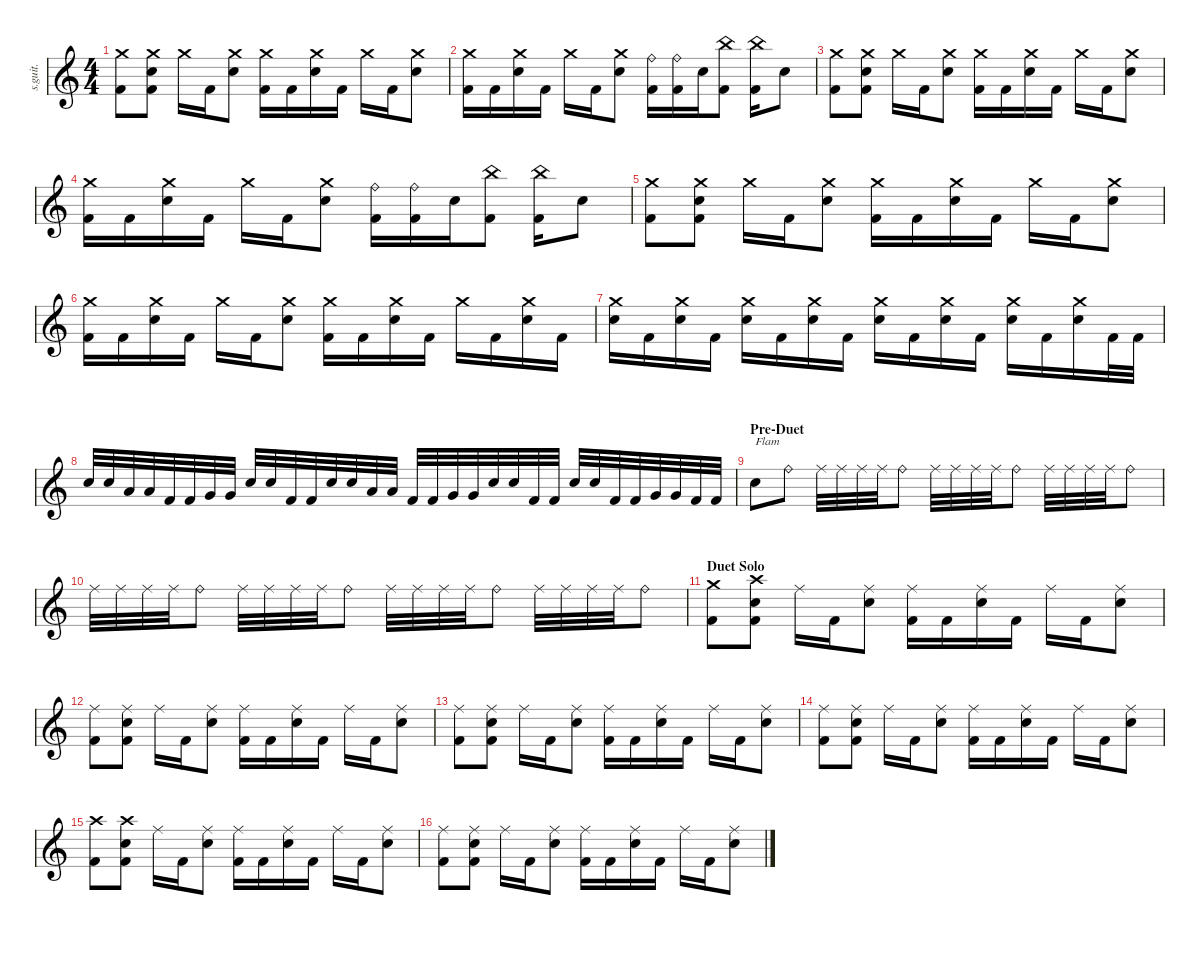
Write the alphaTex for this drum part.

\defaultSystemsLayout 4
\hideDynamics
\bracketExtendMode nobrackets
\track ("The Rev" "s.guit.") {instrument percussion}
\staff {score}
\articulation defaults
\ts (4 4)
\tempo (125 hide)
\clef g2
\ks c
("Crash medium (hit)" "Kick (hit) 2").8{lyrics (0 "") lyrics (1 "") lyrics (2 "") lyrics (3 "") lyrics (4 "") dy mp} ("Crash medium (hit)" "Electric Snare (hit)" "Kick (hit) 2").8{lyrics (0 "") lyrics (1 "") lyrics (2 "") lyrics (3 "") lyrics (4 "")} "Crash medium (hit)".16{lyrics (0 "") lyrics (1 "") lyrics (2 "") lyrics (3 "") lyrics (4 "")} "Kick (hit) 2".16{lyrics (0 "") lyrics (1 "") lyrics (2 "") lyrics (3 "") lyrics (4 "") dy fff} ("Crash medium (hit)" "Electric Snare (hit)").8{lyrics (0 "") lyrics (1 "") lyrics (2 "") lyrics (3 "") lyrics (4 "") dy f} ("Crash medium (hit)" "Kick (hit) 2").16{lyrics (0 "") lyrics (1 "") lyrics (2 "") lyrics (3 "") lyrics (4 "") dy mp} "Kick (hit) 2".16{lyrics (0 "") lyrics (1 "") lyrics (2 "") lyrics (3 "") lyrics (4 "") dy fff} ("Crash medium (hit)" "Electric Snare (hit)").16{lyrics (0 "") lyrics (1 "") lyrics (2 "") lyrics (3 "") lyrics (4 "") dy f} "Kick (hit) 2".16{lyrics (0 "") lyrics (1 "") lyrics (2 "") lyrics (3 "") lyrics (4 "") dy fff} "Crash medium (hit)".16{lyrics (0 "") lyrics (1 "") lyrics (2 "") lyrics (3 "") lyrics (4 "") dy mp} "Kick (hit) 2".16{lyrics (0 "") lyrics (1 "") lyrics (2 "") lyrics (3 "") lyrics (4 "") dy fff} ("Crash medium (hit)" "Electric Snare (hit)").8{lyrics (0 "") lyrics (1 "") lyrics (2 "") lyrics (3 "") lyrics (4 "") dy f} |
("Crash medium (hit)" "Kick (hit) 2").16{lyrics (0 "") lyrics (1 "") lyrics (2 "") lyrics (3 "") lyrics (4 "") dy mp} "Kick (hit) 2".16{lyrics (0 "") lyrics (1 "") lyrics (2 "") lyrics (3 "") lyrics (4 "") dy fff} ("Crash medium (hit)" "Electric Snare (hit)").16{lyrics (0 "") lyrics (1 "") lyrics (2 "") lyrics (3 "") lyrics (4 "") dy f} "Kick (hit) 2".16{lyrics (0 "") lyrics (1 "") lyrics (2 "") lyrics (3 "") lyrics (4 "") dy fff} "Crash medium (hit)".16{lyrics (0 "") lyrics (1 "") lyrics (2 "") lyrics (3 "") lyrics (4 "") dy mp} "Kick (hit) 2".16{lyrics (0 "") lyrics (1 "") lyrics (2 "") lyrics (3 "") lyrics (4 "") dy fff} ("Crash medium (hit)" "Electric Snare (hit)").8{lyrics (0 "") lyrics (1 "") lyrics (2 "") lyrics (3 "") lyrics (4 "") dy f} ("Ride (bell)" "Kick (hit) 2").16{lyrics (0 "") lyrics (1 "") lyrics (2 "") lyrics (3 "") lyrics (4 "")} ("Ride (bell)" "Kick (hit) 2").16{lyrics (0 "") lyrics (1 "") lyrics (2 "") lyrics (3 "") lyrics (4 "")} "Electric Snare (hit)".16{lyrics (0 "") lyrics (1 "") lyrics (2 "") lyrics (3 "") lyrics (4 "")} ("China (hit)" "Kick (hit) 2").8{lyrics (0 "") lyrics (1 "") lyrics (2 "") lyrics (3 "") lyrics (4 "") dy fff} ("China (hit)" "Kick (hit) 2").16{lyrics (0 "") lyrics (1 "") lyrics (2 "") lyrics (3 "") lyrics (4 "")} "Electric Snare (hit)".8{lyrics (0 "") lyrics (1 "") lyrics (2 "") lyrics (3 "") lyrics (4 "") dy f} |
("Crash medium (hit)" "Kick (hit) 2").8{lyrics (0 "") lyrics (1 "") lyrics (2 "") lyrics (3 "") lyrics (4 "") dy mp} ("Crash medium (hit)" "Electric Snare (hit)" "Kick (hit) 2").8{lyrics (0 "") lyrics (1 "") lyrics (2 "") lyrics (3 "") lyrics (4 "")} "Crash medium (hit)".16{lyrics (0 "") lyrics (1 "") lyrics (2 "") lyrics (3 "") lyrics (4 "")} "Kick (hit) 2".16{lyrics (0 "") lyrics (1 "") lyrics (2 "") lyrics (3 "") lyrics (4 "") dy fff} ("Crash medium (hit)" "Electric Snare (hit)").8{lyrics (0 "") lyrics (1 "") lyrics (2 "") lyrics (3 "") lyrics (4 "") dy f} ("Crash medium (hit)" "Kick (hit) 2").16{lyrics (0 "") lyrics (1 "") lyrics (2 "") lyrics (3 "") lyrics (4 "") dy mp} "Kick (hit) 2".16{lyrics (0 "") lyrics (1 "") lyrics (2 "") lyrics (3 "") lyrics (4 "") dy fff} ("Crash medium (hit)" "Electric Snare (hit)").16{lyrics (0 "") lyrics (1 "") lyrics (2 "") lyrics (3 "") lyrics (4 "") dy f} "Kick (hit) 2".16{lyrics (0 "") lyrics (1 "") lyrics (2 "") lyrics (3 "") lyrics (4 "") dy fff} "Crash medium (hit)".16{lyrics (0 "") lyrics (1 "") lyrics (2 "") lyrics (3 "") lyrics (4 "") dy mp} "Kick (hit) 2".16{lyrics (0 "") lyrics (1 "") lyrics (2 "") lyrics (3 "") lyrics (4 "") dy fff} ("Crash medium (hit)" "Electric Snare (hit)").8{lyrics (0 "") lyrics (1 "") lyrics (2 "") lyrics (3 "") lyrics (4 "") dy f} |
("Crash medium (hit)" "Kick (hit) 2").16{lyrics (0 "") lyrics (1 "") lyrics (2 "") lyrics (3 "") lyrics (4 "") dy mp} "Kick (hit) 2".16{lyrics (0 "") lyrics (1 "") lyrics (2 "") lyrics (3 "") lyrics (4 "") dy fff} ("Crash medium (hit)" "Electric Snare (hit)").16{lyrics (0 "") lyrics (1 "") lyrics (2 "") lyrics (3 "") lyrics (4 "") dy f} "Kick (hit) 2".16{lyrics (0 "") lyrics (1 "") lyrics (2 "") lyrics (3 "") lyrics (4 "") dy fff} "Crash medium (hit)".16{lyrics (0 "") lyrics (1 "") lyrics (2 "") lyrics (3 "") lyrics (4 "") dy mp} "Kick (hit) 2".16{lyrics (0 "") lyrics (1 "") lyrics (2 "") lyrics (3 "") lyrics (4 "") dy fff} ("Crash medium (hit)" "Electric Snare (hit)").8{lyrics (0 "") lyrics (1 "") lyrics (2 "") lyrics (3 "") lyrics (4 "") dy f} ("Ride (bell)" "Kick (hit) 2").16{lyrics (0 "") lyrics (1 "") lyrics (2 "") lyrics (3 "") lyrics (4 "")} ("Ride (bell)" "Kick (hit) 2").16{lyrics (0 "") lyrics (1 "") lyrics (2 "") lyrics (3 "") lyrics (4 "")} "Electric Snare (hit)".16{lyrics (0 "") lyrics (1 "") lyrics (2 "") lyrics (3 "") lyrics (4 "")} ("China (hit)" "Kick (hit) 2").8{lyrics (0 "") lyrics (1 "") lyrics (2 "") lyrics (3 "") lyrics (4 "") dy fff} ("China (hit)" "Kick (hit) 2").16{lyrics (0 "") lyrics (1 "") lyrics (2 "") lyrics (3 "") lyrics (4 "")} "Electric Snare (hit)".8{lyrics (0 "") lyrics (1 "") lyrics (2 "") lyrics (3 "") lyrics (4 "") dy f} |
("Crash medium (hit)" "Kick (hit) 2").8{lyrics (0 "") lyrics (1 "") lyrics (2 "") lyrics (3 "") lyrics (4 "") dy mp} ("Crash medium (hit)" "Electric Snare (hit)" "Kick (hit) 2").8{lyrics (0 "") lyrics (1 "") lyrics (2 "") lyrics (3 "") lyrics (4 "")} "Crash medium (hit)".16{lyrics (0 "") lyrics (1 "") lyrics (2 "") lyrics (3 "") lyrics (4 "")} "Kick (hit) 2".16{lyrics (0 "") lyrics (1 "") lyrics (2 "") lyrics (3 "") lyrics (4 "") dy fff} ("Crash medium (hit)" "Electric Snare (hit)").8{lyrics (0 "") lyrics (1 "") lyrics (2 "") lyrics (3 "") lyrics (4 "") dy f} ("Crash medium (hit)" "Kick (hit) 2").16{lyrics (0 "") lyrics (1 "") lyrics (2 "") lyrics (3 "") lyrics (4 "") dy mp} "Kick (hit) 2".16{lyrics (0 "") lyrics (1 "") lyrics (2 "") lyrics (3 "") lyrics (4 "") dy fff} ("Crash medium (hit)" "Electric Snare (hit)").16{lyrics (0 "") lyrics (1 "") lyrics (2 "") lyrics (3 "") lyrics (4 "") dy f} "Kick (hit) 2".16{lyrics (0 "") lyrics (1 "") lyrics (2 "") lyrics (3 "") lyrics (4 "") dy fff} "Crash medium (hit)".16{lyrics (0 "") lyrics (1 "") lyrics (2 "") lyrics (3 "") lyrics (4 "") dy mp} "Kick (hit) 2".16{lyrics (0 "") lyrics (1 "") lyrics (2 "") lyrics (3 "") lyrics (4 "") dy fff} ("Crash medium (hit)" "Electric Snare (hit)").8{lyrics (0 "") lyrics (1 "") lyrics (2 "") lyrics (3 "") lyrics (4 "") dy f} |
("Crash medium (hit)" "Kick (hit) 2").16{lyrics (0 "") lyrics (1 "") lyrics (2 "") lyrics (3 "") lyrics (4 "") dy mp} "Kick (hit) 2".16{lyrics (0 "") lyrics (1 "") lyrics (2 "") lyrics (3 "") lyrics (4 "") dy fff} ("Crash medium (hit)" "Electric Snare (hit)").16{lyrics (0 "") lyrics (1 "") lyrics (2 "") lyrics (3 "") lyrics (4 "") dy f} "Kick (hit) 2".16{lyrics (0 "") lyrics (1 "") lyrics (2 "") lyrics (3 "") lyrics (4 "") dy fff} "Crash medium (hit)".16{lyrics (0 "") lyrics (1 "") lyrics (2 "") lyrics (3 "") lyrics (4 "") dy mp} "Kick (hit) 2".16{lyrics (0 "") lyrics (1 "") lyrics (2 "") lyrics (3 "") lyrics (4 "") dy fff} ("Crash medium (hit)" "Electric Snare (hit)").8{lyrics (0 "") lyrics (1 "") lyrics (2 "") lyrics (3 "") lyrics (4 "") dy f} ("Crash medium (hit)" "Kick (hit) 2").16{lyrics (0 "") lyrics (1 "") lyrics (2 "") lyrics (3 "") lyrics (4 "") dy mp} "Kick (hit) 2".16{lyrics (0 "") lyrics (1 "") lyrics (2 "") lyrics (3 "") lyrics (4 "") dy fff} ("Crash medium (hit)" "Electric Snare (hit)").16{lyrics (0 "") lyrics (1 "") lyrics (2 "") lyrics (3 "") lyrics (4 "") dy f} "Kick (hit) 2".16{lyrics (0 "") lyrics (1 "") lyrics (2 "") lyrics (3 "") lyrics (4 "") dy fff} "Crash medium (hit)".16{lyrics (0 "") lyrics (1 "") lyrics (2 "") lyrics (3 "") lyrics (4 "") dy mp} "Kick (hit) 2".16{lyrics (0 "") lyrics (1 "") lyrics (2 "") lyrics (3 "") lyrics (4 "") dy fff} ("Crash medium (hit)" "Electric Snare (hit)").16{lyrics (0 "") lyrics (1 "") lyrics (2 "") lyrics (3 "") lyrics (4 "") dy f} "Kick (hit) 2".16{lyrics (0 "") lyrics (1 "") lyrics (2 "") lyrics (3 "") lyrics (4 "") dy fff} |
("Crash medium (hit)" "Electric Snare (hit)").16{lyrics (0 "") lyrics (1 "") lyrics (2 "") lyrics (3 "") lyrics (4 "") dy f} "Kick (hit) 2".16{lyrics (0 "") lyrics (1 "") lyrics (2 "") lyrics (3 "") lyrics (4 "") dy fff} ("Crash medium (hit)" "Electric Snare (hit)").16{lyrics (0 "") lyrics (1 "") lyrics (2 "") lyrics (3 "") lyrics (4 "") dy f} "Kick (hit) 2".16{lyrics (0 "") lyrics (1 "") lyrics (2 "") lyrics (3 "") lyrics (4 "") dy fff} ("Crash medium (hit)" "Electric Snare (hit)").16{lyrics (0 "") lyrics (1 "") lyrics (2 "") lyrics (3 "") lyrics (4 "") dy f} "Kick (hit) 2".16{lyrics (0 "") lyrics (1 "") lyrics (2 "") lyrics (3 "") lyrics (4 "") dy fff} ("Crash medium (hit)" "Electric Snare (hit)").16{lyrics (0 "") lyrics (1 "") lyrics (2 "") lyrics (3 "") lyrics (4 "") dy f} "Kick (hit) 2".16{lyrics (0 "") lyrics (1 "") lyrics (2 "") lyrics (3 "") lyrics (4 "") dy fff} ("Crash medium (hit)" "Electric Snare (hit)").16{lyrics (0 "") lyrics (1 "") lyrics (2 "") lyrics (3 "") lyrics (4 "") dy f} "Kick (hit) 2".16{lyrics (0 "") lyrics (1 "") lyrics (2 "") lyrics (3 "") lyrics (4 "") dy fff} ("Crash medium (hit)" "Electric Snare (hit)").16{lyrics (0 "") lyrics (1 "") lyrics (2 "") lyrics (3 "") lyrics (4 "") dy f} "Kick (hit) 2".16{lyrics (0 "") lyrics (1 "") lyrics (2 "") lyrics (3 "") lyrics (4 "") dy fff} ("Crash medium (hit)" "Electric Snare (hit)").16{lyrics (0 "") lyrics (1 "") lyrics (2 "") lyrics (3 "") lyrics (4 "") dy f} "Kick (hit) 2".16{lyrics (0 "") lyrics (1 "") lyrics (2 "") lyrics (3 "") lyrics (4 "") dy fff} ("Crash medium (hit)" "Electric Snare (hit)").16{lyrics (0 "") lyrics (1 "") lyrics (2 "") lyrics (3 "") lyrics (4 "") dy f} "Kick (hit) 2".32{lyrics (0 "") lyrics (1 "") lyrics (2 "") lyrics (3 "") lyrics (4 "") dy fff} "Kick (hit) 2".32{lyrics (0 "") lyrics (1 "") lyrics (2 "") lyrics (3 "") lyrics (4 "")} |
"Electric Snare (hit)".32{lyrics (0 "") lyrics (1 "") lyrics (2 "") lyrics (3 "") lyrics (4 "") dy ff} "Electric Snare (hit)".32{lyrics (0 "") lyrics (1 "") lyrics (2 "") lyrics (3 "") lyrics (4 "")} "Low Tom (hit)".32{lyrics (0 "") lyrics (1 "") lyrics (2 "") lyrics (3 "") lyrics (4 "") dy fff} "Low Tom (hit)".32{lyrics (0 "") lyrics (1 "") lyrics (2 "") lyrics (3 "") lyrics (4 "")} "Kick (hit) 2".32{lyrics (0 "") lyrics (1 "") lyrics (2 "") lyrics (3 "") lyrics (4 "")} "Kick (hit) 2".32{lyrics (0 "") lyrics (1 "") lyrics (2 "") lyrics (3 "") lyrics (4 "")} "Very Low Tom (hit)".32{lyrics (0 "") lyrics (1 "") lyrics (2 "") lyrics (3 "") lyrics (4 "") dy ff} "Very Low Tom (hit)".32{lyrics (0 "") lyrics (1 "") lyrics (2 "") lyrics (3 "") lyrics (4 "")} "Electric Snare (hit)".32{lyrics (0 "") lyrics (1 "") lyrics (2 "") lyrics (3 "") lyrics (4 "")} "Electric Snare (hit)".32{lyrics (0 "") lyrics (1 "") lyrics (2 "") lyrics (3 "") lyrics (4 "")} "Kick (hit) 2".32{lyrics (0 "") lyrics (1 "") lyrics (2 "") lyrics (3 "") lyrics (4 "") dy fff} "Kick (hit) 2".32{lyrics (0 "") lyrics (1 "") lyrics (2 "") lyrics (3 "") lyrics (4 "")} "Electric Snare (hit)".32{lyrics (0 "") lyrics (1 "") lyrics (2 "") lyrics (3 "") lyrics (4 "") dy ff} "Electric Snare (hit)".32{lyrics (0 "") lyrics (1 "") lyrics (2 "") lyrics (3 "") lyrics (4 "")} "Low Tom (hit)".32{lyrics (0 "") lyrics (1 "") lyrics (2 "") lyrics (3 "") lyrics (4 "") dy fff} "Low Tom (hit)".32{lyrics (0 "") lyrics (1 "") lyrics (2 "") lyrics (3 "") lyrics (4 "")} "Kick (hit) 2".32{lyrics (0 "") lyrics (1 "") lyrics (2 "") lyrics (3 "") lyrics (4 "")} "Kick (hit) 2".32{lyrics (0 "") lyrics (1 "") lyrics (2 "") lyrics (3 "") lyrics (4 "")} "Very Low Tom (hit)".32{lyrics (0 "") lyrics (1 "") lyrics (2 "") lyrics (3 "") lyrics (4 "") dy ff} "Very Low Tom (hit)".32{lyrics (0 "") lyrics (1 "") lyrics (2 "") lyrics (3 "") lyrics (4 "")} "Electric Snare (hit)".32{lyrics (0 "") lyrics (1 "") lyrics (2 "") lyrics (3 "") lyrics (4 "")} "Electric Snare (hit)".32{lyrics (0 "") lyrics (1 "") lyrics (2 "") lyrics (3 "") lyrics (4 "")} "Kick (hit) 2".32{lyrics (0 "") lyrics (1 "") lyrics (2 "") lyrics (3 "") lyrics (4 "") dy fff} "Kick (hit) 2".32{lyrics (0 "") lyrics (1 "") lyrics (2 "") lyrics (3 "") lyrics (4 "")} "Electric Snare (hit)".32{lyrics (0 "") lyrics (1 "") lyrics (2 "") lyrics (3 "") lyrics (4 "") dy ff} "Electric Snare (hit)".32{lyrics (0 "") lyrics (1 "") lyrics (2 "") lyrics (3 "") lyrics (4 "")} "Kick (hit) 2".32{lyrics (0 "") lyrics (1 "") lyrics (2 "") lyrics (3 "") lyrics (4 "") dy fff} "Kick (hit) 2".32{lyrics (0 "") lyrics (1 "") lyrics (2 "") lyrics (3 "") lyrics (4 "")} "Very Low Tom (hit)".32{lyrics (0 "") lyrics (1 "") lyrics (2 "") lyrics (3 "") lyrics (4 "") dy ff} "Very Low Tom (hit)".32{lyrics (0 "") lyrics (1 "") lyrics (2 "") lyrics (3 "") lyrics (4 "")} "Kick (hit) 2".32{lyrics (0 "") lyrics (1 "") lyrics (2 "") lyrics (3 "") lyrics (4 "") dy fff} "Kick (hit) 2".32{lyrics (0 "") lyrics (1 "") lyrics (2 "") lyrics (3 "") lyrics (4 "")} |
\section ("" "Pre-Duet")
"Electric Snare (hit)".8{txt "Flam" lyrics (0 "") lyrics (1 "") lyrics (2 "") lyrics (3 "") lyrics (4 "")} "Ride (bell)".8{lyrics (0 "") lyrics (1 "") lyrics (2 "") lyrics (3 "") lyrics (4 "") dy f} "Ride (middle)".32{lyrics (0 "") lyrics (1 "") lyrics (2 "") lyrics (3 "") lyrics (4 "") dy mp} "Ride (middle)".32{lyrics (0 "") lyrics (1 "") lyrics (2 "") lyrics (3 "") lyrics (4 "")} "Ride (middle)".32{lyrics (0 "") lyrics (1 "") lyrics (2 "") lyrics (3 "") lyrics (4 "")} "Ride (middle)".32{lyrics (0 "") lyrics (1 "") lyrics (2 "") lyrics (3 "") lyrics (4 "")} "Ride (bell)".8{lyrics (0 "") lyrics (1 "") lyrics (2 "") lyrics (3 "") lyrics (4 "") dy fff} "Ride (middle)".32{lyrics (0 "") lyrics (1 "") lyrics (2 "") lyrics (3 "") lyrics (4 "") dy mp} "Ride (middle)".32{lyrics (0 "") lyrics (1 "") lyrics (2 "") lyrics (3 "") lyrics (4 "")} "Ride (middle)".32{lyrics (0 "") lyrics (1 "") lyrics (2 "") lyrics (3 "") lyrics (4 "")} "Ride (middle)".32{lyrics (0 "") lyrics (1 "") lyrics (2 "") lyrics (3 "") lyrics (4 "")} "Ride (bell)".8{lyrics (0 "") lyrics (1 "") lyrics (2 "") lyrics (3 "") lyrics (4 "") dy fff} "Ride (middle)".32{lyrics (0 "") lyrics (1 "") lyrics (2 "") lyrics (3 "") lyrics (4 "") dy mp} "Ride (middle)".32{lyrics (0 "") lyrics (1 "") lyrics (2 "") lyrics (3 "") lyrics (4 "")} "Ride (middle)".32{lyrics (0 "") lyrics (1 "") lyrics (2 "") lyrics (3 "") lyrics (4 "")} "Ride (middle)".32{lyrics (0 "") lyrics (1 "") lyrics (2 "") lyrics (3 "") lyrics (4 "")} "Ride (bell)".8{lyrics (0 "") lyrics (1 "") lyrics (2 "") lyrics (3 "") lyrics (4 "") dy fff} |
"Ride (middle)".32{lyrics (0 "") lyrics (1 "") lyrics (2 "") lyrics (3 "") lyrics (4 "") dy mp} "Ride (middle)".32{lyrics (0 "") lyrics (1 "") lyrics (2 "") lyrics (3 "") lyrics (4 "")} "Ride (middle)".32{lyrics (0 "") lyrics (1 "") lyrics (2 "") lyrics (3 "") lyrics (4 "")} "Ride (middle)".32{lyrics (0 "") lyrics (1 "") lyrics (2 "") lyrics (3 "") lyrics (4 "")} "Ride (bell)".8{lyrics (0 "") lyrics (1 "") lyrics (2 "") lyrics (3 "") lyrics (4 "") dy fff} "Ride (middle)".32{lyrics (0 "") lyrics (1 "") lyrics (2 "") lyrics (3 "") lyrics (4 "") dy mp} "Ride (middle)".32{lyrics (0 "") lyrics (1 "") lyrics (2 "") lyrics (3 "") lyrics (4 "")} "Ride (middle)".32{lyrics (0 "") lyrics (1 "") lyrics (2 "") lyrics (3 "") lyrics (4 "")} "Ride (middle)".32{lyrics (0 "") lyrics (1 "") lyrics (2 "") lyrics (3 "") lyrics (4 "")} "Ride (bell)".8{lyrics (0 "") lyrics (1 "") lyrics (2 "") lyrics (3 "") lyrics (4 "") dy fff} "Ride (middle)".32{lyrics (0 "") lyrics (1 "") lyrics (2 "") lyrics (3 "") lyrics (4 "") dy mp} "Ride (middle)".32{lyrics (0 "") lyrics (1 "") lyrics (2 "") lyrics (3 "") lyrics (4 "")} "Ride (middle)".32{lyrics (0 "") lyrics (1 "") lyrics (2 "") lyrics (3 "") lyrics (4 "")} "Ride (middle)".32{lyrics (0 "") lyrics (1 "") lyrics (2 "") lyrics (3 "") lyrics (4 "")} "Ride (bell)".8{lyrics (0 "") lyrics (1 "") lyrics (2 "") lyrics (3 "") lyrics (4 "") dy fff} "Ride (middle)".32{lyrics (0 "") lyrics (1 "") lyrics (2 "") lyrics (3 "") lyrics (4 "") dy mp} "Ride (middle)".32{lyrics (0 "") lyrics (1 "") lyrics (2 "") lyrics (3 "") lyrics (4 "")} "Ride (middle)".32{lyrics (0 "") lyrics (1 "") lyrics (2 "") lyrics (3 "") lyrics (4 "")} "Ride (middle)".32{lyrics (0 "") lyrics (1 "") lyrics (2 "") lyrics (3 "") lyrics (4 "")} "Ride (bell)".8{lyrics (0 "") lyrics (1 "") lyrics (2 "") lyrics (3 "") lyrics (4 "") dy fff} |
\section ("" "Duet Solo")
("Crash medium (hit)" "Kick (hit) 2").8{lyrics (0 "") lyrics (1 "") lyrics (2 "") lyrics (3 "") lyrics (4 "")} ("Crash high (hit)" "Electric Snare (hit)" "Kick (hit) 2").8{lyrics (0 "") lyrics (1 "") lyrics (2 "") lyrics (3 "") lyrics (4 "") dy f} "Ride (middle)".16{lyrics (0 "") lyrics (1 "") lyrics (2 "") lyrics (3 "") lyrics (4 "") dy mp} "Kick (hit) 2".16{lyrics (0 "") lyrics (1 "") lyrics (2 "") lyrics (3 "") lyrics (4 "") dy fff} ("Ride (middle)" "Electric Snare (hit)").8{lyrics (0 "") lyrics (1 "") lyrics (2 "") lyrics (3 "") lyrics (4 "") dy f} ("Ride (middle)" "Kick (hit) 2").16{lyrics (0 "") lyrics (1 "") lyrics (2 "") lyrics (3 "") lyrics (4 "") dy mp} "Kick (hit) 2".16{lyrics (0 "") lyrics (1 "") lyrics (2 "") lyrics (3 "") lyrics (4 "") dy fff} ("Ride (middle)" "Electric Snare (hit)").16{lyrics (0 "") lyrics (1 "") lyrics (2 "") lyrics (3 "") lyrics (4 "") dy f} "Kick (hit) 2".16{lyrics (0 "") lyrics (1 "") lyrics (2 "") lyrics (3 "") lyrics (4 "") dy fff} "Ride (middle)".16{lyrics (0 "") lyrics (1 "") lyrics (2 "") lyrics (3 "") lyrics (4 "") dy mp} "Kick (hit) 2".16{lyrics (0 "") lyrics (1 "") lyrics (2 "") lyrics (3 "") lyrics (4 "") dy fff} ("Ride (middle)" "Electric Snare (hit)").8{lyrics (0 "") lyrics (1 "") lyrics (2 "") lyrics (3 "") lyrics (4 "") dy f} |
("Ride (middle)" "Kick (hit) 2").8{lyrics (0 "") lyrics (1 "") lyrics (2 "") lyrics (3 "") lyrics (4 "") dy mp} ("Ride (middle)" "Electric Snare (hit)" "Kick (hit) 2").8{lyrics (0 "") lyrics (1 "") lyrics (2 "") lyrics (3 "") lyrics (4 "") dy f} "Ride (middle)".16{lyrics (0 "") lyrics (1 "") lyrics (2 "") lyrics (3 "") lyrics (4 "") dy mp} "Kick (hit) 2".16{lyrics (0 "") lyrics (1 "") lyrics (2 "") lyrics (3 "") lyrics (4 "") dy fff} ("Ride (middle)" "Electric Snare (hit)").8{lyrics (0 "") lyrics (1 "") lyrics (2 "") lyrics (3 "") lyrics (4 "") dy f} ("Ride (middle)" "Kick (hit) 2").16{lyrics (0 "") lyrics (1 "") lyrics (2 "") lyrics (3 "") lyrics (4 "") dy mp} "Kick (hit) 2".16{lyrics (0 "") lyrics (1 "") lyrics (2 "") lyrics (3 "") lyrics (4 "") dy fff} ("Ride (middle)" "Electric Snare (hit)").16{lyrics (0 "") lyrics (1 "") lyrics (2 "") lyrics (3 "") lyrics (4 "") dy f} "Kick (hit) 2".16{lyrics (0 "") lyrics (1 "") lyrics (2 "") lyrics (3 "") lyrics (4 "") dy fff} "Ride (middle)".16{lyrics (0 "") lyrics (1 "") lyrics (2 "") lyrics (3 "") lyrics (4 "") dy mp} "Kick (hit) 2".16{lyrics (0 "") lyrics (1 "") lyrics (2 "") lyrics (3 "") lyrics (4 "") dy fff} ("Ride (middle)" "Electric Snare (hit)").8{lyrics (0 "") lyrics (1 "") lyrics (2 "") lyrics (3 "") lyrics (4 "") dy f} |
("Ride (middle)" "Kick (hit) 2").8{lyrics (0 "") lyrics (1 "") lyrics (2 "") lyrics (3 "") lyrics (4 "") dy mp} ("Ride (middle)" "Electric Snare (hit)" "Kick (hit) 2").8{lyrics (0 "") lyrics (1 "") lyrics (2 "") lyrics (3 "") lyrics (4 "") dy f} "Ride (middle)".16{lyrics (0 "") lyrics (1 "") lyrics (2 "") lyrics (3 "") lyrics (4 "") dy mp} "Kick (hit) 2".16{lyrics (0 "") lyrics (1 "") lyrics (2 "") lyrics (3 "") lyrics (4 "") dy fff} ("Ride (middle)" "Electric Snare (hit)").8{lyrics (0 "") lyrics (1 "") lyrics (2 "") lyrics (3 "") lyrics (4 "") dy f} ("Ride (middle)" "Kick (hit) 2").16{lyrics (0 "") lyrics (1 "") lyrics (2 "") lyrics (3 "") lyrics (4 "") dy mp} "Kick (hit) 2".16{lyrics (0 "") lyrics (1 "") lyrics (2 "") lyrics (3 "") lyrics (4 "") dy fff} ("Ride (middle)" "Electric Snare (hit)").16{lyrics (0 "") lyrics (1 "") lyrics (2 "") lyrics (3 "") lyrics (4 "") dy f} "Kick (hit) 2".16{lyrics (0 "") lyrics (1 "") lyrics (2 "") lyrics (3 "") lyrics (4 "") dy fff} "Ride (middle)".16{lyrics (0 "") lyrics (1 "") lyrics (2 "") lyrics (3 "") lyrics (4 "") dy mp} "Kick (hit) 2".16{lyrics (0 "") lyrics (1 "") lyrics (2 "") lyrics (3 "") lyrics (4 "") dy fff} ("Ride (middle)" "Electric Snare (hit)").8{lyrics (0 "") lyrics (1 "") lyrics (2 "") lyrics (3 "") lyrics (4 "") dy f} |
("Ride (middle)" "Kick (hit) 2").8{lyrics (0 "") lyrics (1 "") lyrics (2 "") lyrics (3 "") lyrics (4 "") dy mp} ("Ride (middle)" "Electric Snare (hit)" "Kick (hit) 2").8{lyrics (0 "") lyrics (1 "") lyrics (2 "") lyrics (3 "") lyrics (4 "") dy f} "Ride (middle)".16{lyrics (0 "") lyrics (1 "") lyrics (2 "") lyrics (3 "") lyrics (4 "") dy mp} "Kick (hit) 2".16{lyrics (0 "") lyrics (1 "") lyrics (2 "") lyrics (3 "") lyrics (4 "") dy fff} ("Ride (middle)" "Electric Snare (hit)").8{lyrics (0 "") lyrics (1 "") lyrics (2 "") lyrics (3 "") lyrics (4 "") dy f} ("Ride (middle)" "Kick (hit) 2").16{lyrics (0 "") lyrics (1 "") lyrics (2 "") lyrics (3 "") lyrics (4 "") dy mp} "Kick (hit) 2".16{lyrics (0 "") lyrics (1 "") lyrics (2 "") lyrics (3 "") lyrics (4 "") dy fff} ("Ride (middle)" "Electric Snare (hit)").16{lyrics (0 "") lyrics (1 "") lyrics (2 "") lyrics (3 "") lyrics (4 "") dy f} "Kick (hit) 2".16{lyrics (0 "") lyrics (1 "") lyrics (2 "") lyrics (3 "") lyrics (4 "") dy fff} "Ride (middle)".16{lyrics (0 "") lyrics (1 "") lyrics (2 "") lyrics (3 "") lyrics (4 "") dy mp} "Kick (hit) 2".16{lyrics (0 "") lyrics (1 "") lyrics (2 "") lyrics (3 "") lyrics (4 "") dy fff} ("Ride (middle)" "Electric Snare (hit)").8{lyrics (0 "") lyrics (1 "") lyrics (2 "") lyrics (3 "") lyrics (4 "") dy f} |
("Crash high (hit)" "Kick (hit) 2").8{lyrics (0 "") lyrics (1 "") lyrics (2 "") lyrics (3 "") lyrics (4 "")} ("Crash high (hit)" "Electric Snare (hit)" "Kick (hit) 2").8{lyrics (0 "") lyrics (1 "") lyrics (2 "") lyrics (3 "") lyrics (4 "")} "Ride (middle)".16{lyrics (0 "") lyrics (1 "") lyrics (2 "") lyrics (3 "") lyrics (4 "") dy mp} "Kick (hit) 2".16{lyrics (0 "") lyrics (1 "") lyrics (2 "") lyrics (3 "") lyrics (4 "") dy fff} ("Ride (middle)" "Electric Snare (hit)").8{lyrics (0 "") lyrics (1 "") lyrics (2 "") lyrics (3 "") lyrics (4 "") dy f} ("Ride (middle)" "Kick (hit) 2").16{lyrics (0 "") lyrics (1 "") lyrics (2 "") lyrics (3 "") lyrics (4 "") dy mp} "Kick (hit) 2".16{lyrics (0 "") lyrics (1 "") lyrics (2 "") lyrics (3 "") lyrics (4 "") dy fff} ("Ride (middle)" "Electric Snare (hit)").16{lyrics (0 "") lyrics (1 "") lyrics (2 "") lyrics (3 "") lyrics (4 "") dy f} "Kick (hit) 2".16{lyrics (0 "") lyrics (1 "") lyrics (2 "") lyrics (3 "") lyrics (4 "") dy fff} "Ride (middle)".16{lyrics (0 "") lyrics (1 "") lyrics (2 "") lyrics (3 "") lyrics (4 "") dy mp} "Kick (hit) 2".16{lyrics (0 "") lyrics (1 "") lyrics (2 "") lyrics (3 "") lyrics (4 "") dy fff} ("Ride (middle)" "Electric Snare (hit)").8{lyrics (0 "") lyrics (1 "") lyrics (2 "") lyrics (3 "") lyrics (4 "") dy f} |
("Ride (middle)" "Kick (hit) 2").8{lyrics (0 "") lyrics (1 "") lyrics (2 "") lyrics (3 "") lyrics (4 "") dy mp} ("Ride (middle)" "Electric Snare (hit)" "Kick (hit) 2").8{lyrics (0 "") lyrics (1 "") lyrics (2 "") lyrics (3 "") lyrics (4 "") dy f} "Ride (middle)".16{lyrics (0 "") lyrics (1 "") lyrics (2 "") lyrics (3 "") lyrics (4 "") dy mp} "Kick (hit) 2".16{lyrics (0 "") lyrics (1 "") lyrics (2 "") lyrics (3 "") lyrics (4 "") dy fff} ("Ride (middle)" "Electric Snare (hit)").8{lyrics (0 "") lyrics (1 "") lyrics (2 "") lyrics (3 "") lyrics (4 "") dy f} ("Ride (middle)" "Kick (hit) 2").16{lyrics (0 "") lyrics (1 "") lyrics (2 "") lyrics (3 "") lyrics (4 "") dy mp} "Kick (hit) 2".16{lyrics (0 "") lyrics (1 "") lyrics (2 "") lyrics (3 "") lyrics (4 "") dy fff} ("Ride (middle)" "Electric Snare (hit)").16{lyrics (0 "") lyrics (1 "") lyrics (2 "") lyrics (3 "") lyrics (4 "") dy f} "Kick (hit) 2".16{lyrics (0 "") lyrics (1 "") lyrics (2 "") lyrics (3 "") lyrics (4 "") dy fff} "Ride (middle)".16{lyrics (0 "") lyrics (1 "") lyrics (2 "") lyrics (3 "") lyrics (4 "") dy mp} "Kick (hit) 2".16{lyrics (0 "") lyrics (1 "") lyrics (2 "") lyrics (3 "") lyrics (4 "") dy fff} ("Ride (middle)" "Electric Snare (hit)").8{lyrics (0 "") lyrics (1 "") lyrics (2 "") lyrics (3 "") lyrics (4 "") dy f}
